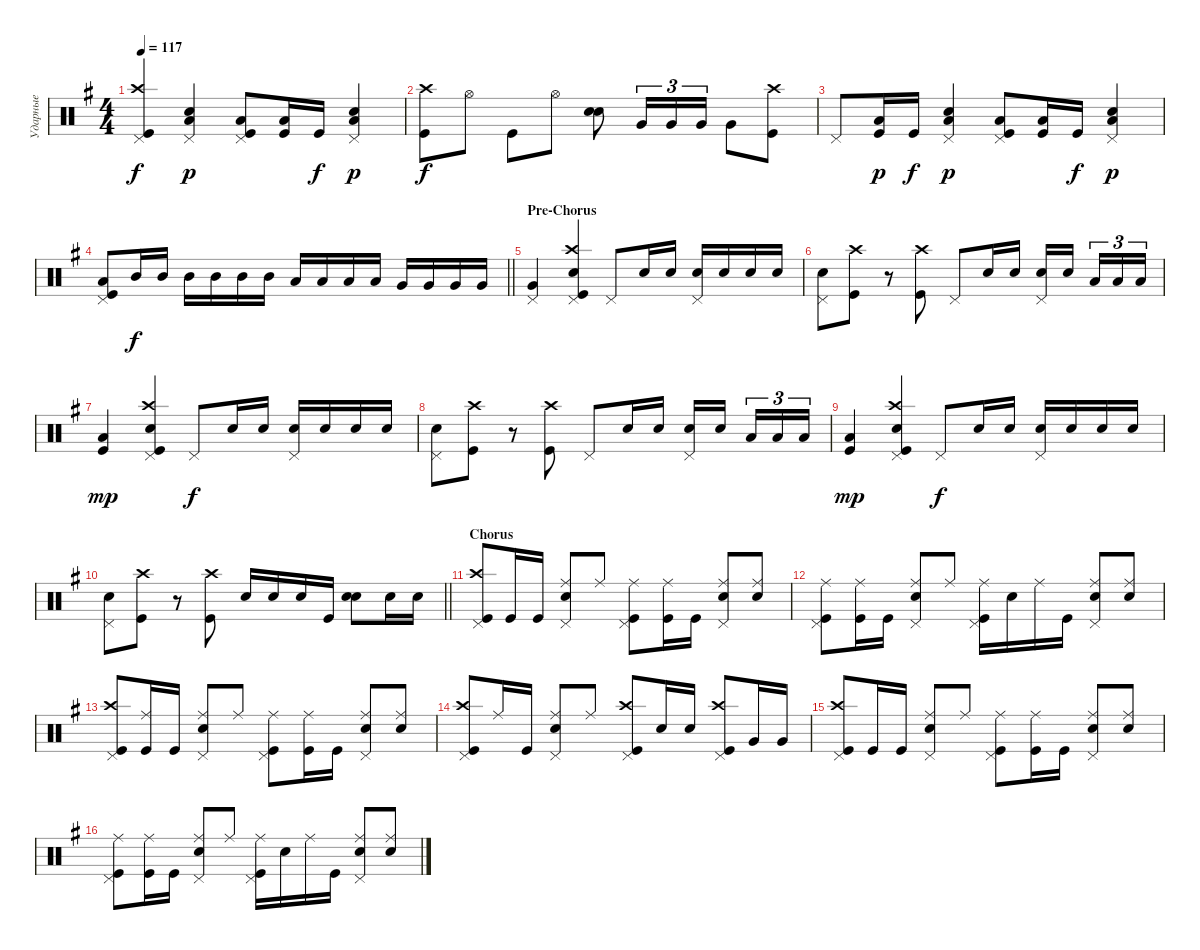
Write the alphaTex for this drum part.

\track ("Ударные" "Ударные") {instrument percussion}
\staff {score}
\articulation defaults
\ts (4 4)
\tempo 117
\clef neutral
\ks eminor
("Kick (hit)" "Crash high (hit)" "Pedal Hi-Hat (hit)").4{dy f} ("Snare (hit) 2" "Pedal Hi-Hat (hit)" "Low Floor Tom (hit)").4{dy p} ("Kick (hit)" "Low Floor Tom (hit)" "Pedal Hi-Hat (hit)").8 ("Kick (hit)" "Low Floor Tom (hit)").16 "Kick (hit)".16{dy f} ("Snare (hit) 2" "Pedal Hi-Hat (hit)" "Low Floor Tom (hit)").4{dy p} |
("Kick (hit)" "Crash high (hit)").8{dy f} "Hi-Hat (open)".8 "Kick (hit)".8 "Hi-Hat (open)".8 ("Snare (hit) 2" "Snare (hit) 2").8{bd 240} "Very Low Tom (hit)".16{tu (3 2)} "Very Low Tom (hit)".16{tu (3 2)} "Very Low Tom (hit)".16{tu (3 2)} "Very Low Tom (hit)".8 ("Kick (hit)" "Crash high (hit)").8 |
"Pedal Hi-Hat (hit)".8 ("Low Floor Tom (hit)" "Kick (hit)").16{dy p} "Kick (hit)".16{dy f} ("Snare (hit) 2" "Pedal Hi-Hat (hit)" "Low Floor Tom (hit)").4{dy p} ("Kick (hit)" "Low Floor Tom (hit)" "Pedal Hi-Hat (hit)").8 ("Kick (hit)" "Low Floor Tom (hit)").16 "Kick (hit)".16{dy f} ("Snare (hit) 2" "Pedal Hi-Hat (hit)" "Low Floor Tom (hit)").4{dy p} |
\barLineRight lightlight
("Kick (hit)" "Low Floor Tom (hit)" "Pedal Hi-Hat (hit)").8 "Mid Tom (hit)".16{dy f} "Mid Tom (hit)".16 "Mid Tom (hit)".16 "Mid Tom (hit)".16 "Mid Tom (hit)".16 "Mid Tom (hit)".16 "Low Tom (hit)".16 "Low Tom (hit)".16 "Low Tom (hit)".16 "Low Tom (hit)".16 "Very Low Tom (hit)".16 "Very Low Tom (hit)".16 "Very Low Tom (hit)".16 "Very Low Tom (hit)".16 |
\section ("" "Pre-Chorus")
("Pedal Hi-Hat (hit)" "Very Low Tom (hit)").4 ("Kick (hit)" "Crash high (hit)" "Snare (hit) 2" "Pedal Hi-Hat (hit)").4 "Pedal Hi-Hat (hit)".8 "Snare (hit) 2".16 "Snare (hit) 2".16 ("Snare (hit) 2" "Pedal Hi-Hat (hit)").16 "Snare (hit) 2".16 "Snare (hit) 2".16 "Snare (hit) 2".16 |
("Snare (hit) 2" "Pedal Hi-Hat (hit)").8 ("Kick (hit)" "Crash high (hit)").8 r.8 ("Kick (hit)" "Crash high (hit)").8 "Pedal Hi-Hat (hit)".8 "Snare (hit) 2".16 "Snare (hit) 2".16 ("Snare (hit) 2" "Pedal Hi-Hat (hit)").16 "Snare (hit) 2".16{beam splitsecondary} "Low Tom (hit)".16{tu (3 2)} "Low Tom (hit)".16{tu (3 2)} "Low Tom (hit)".16{tu (3 2)} |
("Kick (hit)" "Low Floor Tom (hit)").4{dy mp} ("Snare (hit) 2" "Crash high (hit)" "Pedal Hi-Hat (hit)" "Kick (hit)").4 "Pedal Hi-Hat (hit)".8{dy f} "Snare (hit) 2".16 "Snare (hit) 2".16 ("Snare (hit) 2" "Pedal Hi-Hat (hit)").16 "Snare (hit) 2".16 "Snare (hit) 2".16 "Snare (hit) 2".16 |
("Snare (hit) 2" "Pedal Hi-Hat (hit)").8 ("Kick (hit)" "Crash high (hit)").8 r.8 ("Kick (hit)" "Crash high (hit)").8 "Pedal Hi-Hat (hit)".8 "Snare (hit) 2".16 "Snare (hit) 2".16 ("Snare (hit) 2" "Pedal Hi-Hat (hit)").16 "Snare (hit) 2".16{beam splitsecondary} "Low Tom (hit)".16{tu (3 2)} "Low Tom (hit)".16{tu (3 2)} "Low Tom (hit)".16{tu (3 2)} |
("Kick (hit)" "Low Floor Tom (hit)").4{dy mp} ("Snare (hit) 2" "Crash high (hit)" "Pedal Hi-Hat (hit)" "Kick (hit)").4 "Pedal Hi-Hat (hit)".8{dy f} "Snare (hit) 2".16 "Snare (hit) 2".16 ("Snare (hit) 2" "Pedal Hi-Hat (hit)").16 "Snare (hit) 2".16 "Snare (hit) 2".16 "Snare (hit) 2".16 |
\barLineRight lightlight
("Snare (hit) 2" "Pedal Hi-Hat (hit)").8 ("Kick (hit)" "Crash high (hit)").8 r.8 ("Kick (hit)" "Crash high (hit)").8 "Snare (hit) 2".16 "Snare (hit) 2".16 "Snare (hit) 2".16 "Kick (hit)".16 ("Snare (hit) 2" "Snare (hit) 2").8{bd 240} "Snare (hit) 2".16 "Snare (hit) 2".16 |
\section ("" "Chorus")
("Crash high (hit)" "Kick (hit)" "Pedal Hi-Hat (hit)").8 "Kick (hit)".16 "Kick (hit)".16 ("Ride (middle)" "Snare (hit) 2" "Pedal Hi-Hat (hit)").8 "Ride (middle)".8 ("Ride (middle)" "Kick (hit)" "Pedal Hi-Hat (hit)").8 ("Ride (middle)" "Kick (hit)").16 "Kick (hit)".16 ("Ride (middle)" "Snare (hit) 2" "Pedal Hi-Hat (hit)").8 ("Ride (middle)" "Snare (hit) 2").8 |
("Kick (hit)" "Ride (middle)" "Pedal Hi-Hat (hit)").8 ("Ride (middle)" "Kick (hit)").16 "Kick (hit)".16 ("Ride (middle)" "Snare (hit) 2" "Pedal Hi-Hat (hit)").8 "Ride (middle)".8 ("Ride (middle)" "Kick (hit)" "Pedal Hi-Hat (hit)").16 "Snare (hit) 2".16 "Ride (middle)".16 "Kick (hit)".16 ("Ride (middle)" "Snare (hit) 2" "Pedal Hi-Hat (hit)").8 ("Ride (middle)" "Snare (hit) 2").8 |
("Kick (hit)" "Crash high (hit)" "Pedal Hi-Hat (hit)").8 ("Ride (middle)" "Kick (hit)").16 "Kick (hit)".16 ("Ride (middle)" "Snare (hit) 2" "Pedal Hi-Hat (hit)").8 "Ride (middle)".8 ("Kick (hit)" "Ride (middle)" "Pedal Hi-Hat (hit)").8 ("Ride (middle)" "Kick (hit)").16 "Kick (hit)".16 ("Ride (middle)" "Snare (hit) 2" "Pedal Hi-Hat (hit)").8 ("Ride (middle)" "Snare (hit) 2").8 |
("Kick (hit)" "Crash high (hit)" "Pedal Hi-Hat (hit)").8 "Ride (middle)".16 "Kick (hit)".16 ("Ride (middle)" "Snare (hit) 2" "Pedal Hi-Hat (hit)").8 "Ride (middle)".8 ("Crash high (hit)" "Kick (hit)" "Pedal Hi-Hat (hit)").8 "Snare (hit) 2".16 "Snare (hit) 2".16 ("Kick (hit)" "Crash high (hit)" "Pedal Hi-Hat (hit)").8 "Very Low Tom (hit)".16 "Very Low Tom (hit)".16 |
("Crash high (hit)" "Kick (hit)" "Pedal Hi-Hat (hit)").8 "Kick (hit)".16 "Kick (hit)".16 ("Ride (middle)" "Snare (hit) 2" "Pedal Hi-Hat (hit)").8 "Ride (middle)".8 ("Ride (middle)" "Kick (hit)" "Pedal Hi-Hat (hit)").8 ("Ride (middle)" "Kick (hit)").16 "Kick (hit)".16 ("Ride (middle)" "Snare (hit) 2" "Pedal Hi-Hat (hit)").8 ("Ride (middle)" "Snare (hit) 2").8 |
("Kick (hit)" "Ride (middle)" "Pedal Hi-Hat (hit)").8 ("Ride (middle)" "Kick (hit)").16 "Kick (hit)".16 ("Ride (middle)" "Snare (hit) 2" "Pedal Hi-Hat (hit)").8 "Ride (middle)".8 ("Ride (middle)" "Kick (hit)" "Pedal Hi-Hat (hit)").16 "Snare (hit) 2".16 "Ride (middle)".16 "Kick (hit)".16 ("Ride (middle)" "Snare (hit) 2" "Pedal Hi-Hat (hit)").8 ("Ride (middle)" "Snare (hit) 2").8
